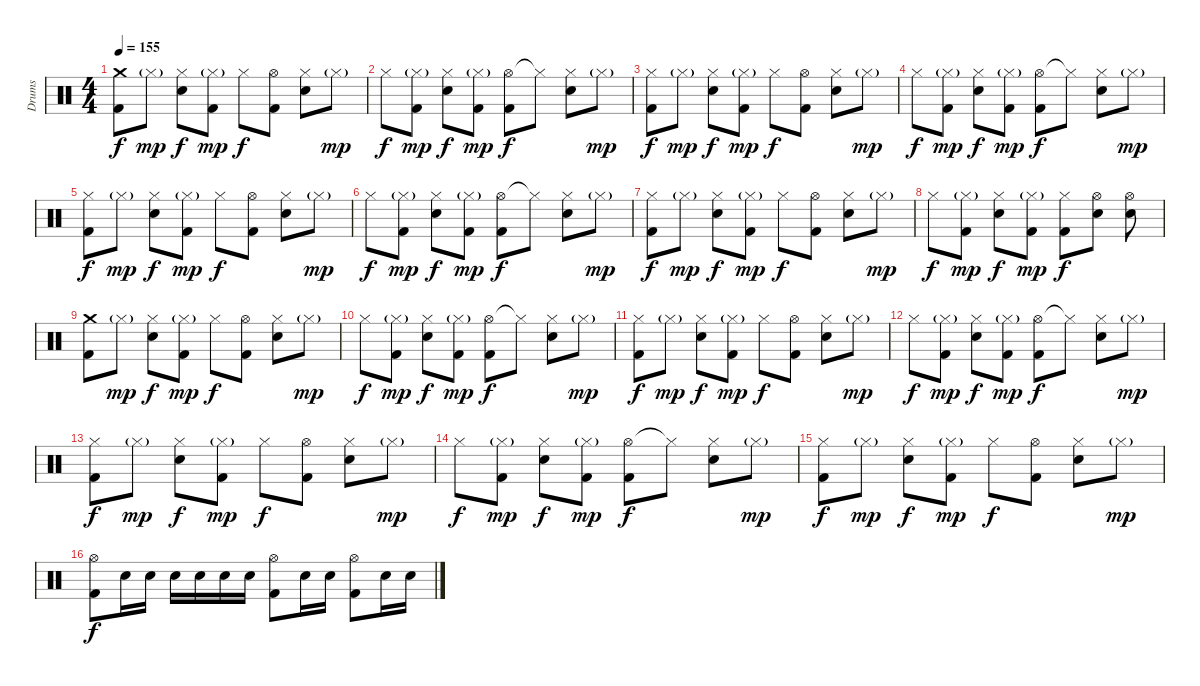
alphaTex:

\track ("Drums" "Drums") {instrument percussion}
\staff {score}
\articulation defaults
\ts (4 4)
\tempo 155
\clef neutral
\ks c
("Crash medium (hit)" "Kick (hit) 2").8{dy f} "Hi-Hat (closed)"{g}.8{dy mp} ("Hi-Hat (closed)" "Electric Snare (hit)").8{dy f} ("Hi-Hat (closed)"{g} "Kick (hit) 2").8{dy mp} "Hi-Hat (closed)".8{dy f} ("Hi-Hat (open)" "Kick (hit) 2").8 ("Hi-Hat (closed)" "Electric Snare (hit)").8 "Hi-Hat (closed)"{g}.8{dy mp} |
"Hi-Hat (closed)".8{dy f} ("Hi-Hat (closed)"{g} "Kick (hit) 2").8{dy mp} ("Hi-Hat (closed)" "Electric Snare (hit)").8{dy f} ("Hi-Hat (closed)"{g} "Kick (hit) 2").8{dy mp} ("Hi-Hat (open)" "Kick (hit) 2").8{dy f} "Hi-Hat (closed)"{t}.8 ("Hi-Hat (closed)" "Electric Snare (hit)").8 "Hi-Hat (closed)"{g}.8{dy mp} |
("Hi-Hat (closed)" "Kick (hit) 2").8{dy f} "Hi-Hat (closed)"{g}.8{dy mp} ("Hi-Hat (closed)" "Electric Snare (hit)").8{dy f} ("Hi-Hat (closed)"{g} "Kick (hit) 2").8{dy mp} "Hi-Hat (closed)".8{dy f} ("Hi-Hat (open)" "Kick (hit) 2").8 ("Hi-Hat (closed)" "Electric Snare (hit)").8 "Hi-Hat (closed)"{g}.8{dy mp} |
"Hi-Hat (closed)".8{dy f} ("Hi-Hat (closed)"{g} "Kick (hit) 2").8{dy mp} ("Hi-Hat (closed)" "Electric Snare (hit)").8{dy f} ("Hi-Hat (closed)"{g} "Kick (hit) 2").8{dy mp} ("Hi-Hat (open)" "Kick (hit) 2").8{dy f} "Hi-Hat (closed)"{t}.8 ("Hi-Hat (closed)" "Electric Snare (hit)").8 "Hi-Hat (closed)"{g}.8{dy mp} |
("Hi-Hat (closed)" "Kick (hit) 2").8{dy f} "Hi-Hat (closed)"{g}.8{dy mp} ("Hi-Hat (closed)" "Electric Snare (hit)").8{dy f} ("Hi-Hat (closed)"{g} "Kick (hit) 2").8{dy mp} "Hi-Hat (closed)".8{dy f} ("Hi-Hat (open)" "Kick (hit) 2").8 ("Hi-Hat (closed)" "Electric Snare (hit)").8 "Hi-Hat (closed)"{g}.8{dy mp} |
"Hi-Hat (closed)".8{dy f} ("Hi-Hat (closed)"{g} "Kick (hit) 2").8{dy mp} ("Hi-Hat (closed)" "Electric Snare (hit)").8{dy f} ("Hi-Hat (closed)"{g} "Kick (hit) 2").8{dy mp} ("Hi-Hat (open)" "Kick (hit) 2").8{dy f} "Hi-Hat (closed)"{t}.8 ("Hi-Hat (closed)" "Electric Snare (hit)").8 "Hi-Hat (closed)"{g}.8{dy mp} |
("Hi-Hat (closed)" "Kick (hit) 2").8{dy f} "Hi-Hat (closed)"{g}.8{dy mp} ("Hi-Hat (closed)" "Electric Snare (hit)").8{dy f} ("Hi-Hat (closed)"{g} "Kick (hit) 2").8{dy mp} "Hi-Hat (closed)".8{dy f} ("Hi-Hat (open)" "Kick (hit) 2").8 ("Hi-Hat (closed)" "Electric Snare (hit)").8 "Hi-Hat (closed)"{g}.8{dy mp} |
"Hi-Hat (closed)".8{dy f} ("Hi-Hat (closed)"{g} "Kick (hit) 2").8{dy mp} ("Hi-Hat (closed)" "Electric Snare (hit)").8{dy f} ("Hi-Hat (closed)"{g} "Kick (hit) 2").8{dy mp} ("Hi-Hat (closed)" "Kick (hit) 2").8{dy f} ("Hi-Hat (open)" "Electric Snare (hit)").8 ("Hi-Hat (open)" "Electric Snare (hit)").8 |
("Crash medium (hit)" "Kick (hit) 2").8 "Hi-Hat (closed)"{g}.8{dy mp} ("Hi-Hat (closed)" "Electric Snare (hit)").8{dy f} ("Hi-Hat (closed)"{g} "Kick (hit) 2").8{dy mp} "Hi-Hat (closed)".8{dy f} ("Hi-Hat (open)" "Kick (hit) 2").8 ("Hi-Hat (closed)" "Electric Snare (hit)").8 "Hi-Hat (closed)"{g}.8{dy mp} |
"Hi-Hat (closed)".8{dy f} ("Hi-Hat (closed)"{g} "Kick (hit) 2").8{dy mp} ("Hi-Hat (closed)" "Electric Snare (hit)").8{dy f} ("Hi-Hat (closed)"{g} "Kick (hit) 2").8{dy mp} ("Hi-Hat (open)" "Kick (hit) 2").8{dy f} "Hi-Hat (closed)"{t}.8 ("Hi-Hat (closed)" "Electric Snare (hit)").8 "Hi-Hat (closed)"{g}.8{dy mp} |
("Hi-Hat (closed)" "Kick (hit) 2").8{dy f} "Hi-Hat (closed)"{g}.8{dy mp} ("Hi-Hat (closed)" "Electric Snare (hit)").8{dy f} ("Hi-Hat (closed)"{g} "Kick (hit) 2").8{dy mp} "Hi-Hat (closed)".8{dy f} ("Hi-Hat (open)" "Kick (hit) 2").8 ("Hi-Hat (closed)" "Electric Snare (hit)").8 "Hi-Hat (closed)"{g}.8{dy mp} |
"Hi-Hat (closed)".8{dy f} ("Hi-Hat (closed)"{g} "Kick (hit) 2").8{dy mp} ("Hi-Hat (closed)" "Electric Snare (hit)").8{dy f} ("Hi-Hat (closed)"{g} "Kick (hit) 2").8{dy mp} ("Hi-Hat (open)" "Kick (hit) 2").8{dy f} "Hi-Hat (closed)"{t}.8 ("Hi-Hat (closed)" "Electric Snare (hit)").8 "Hi-Hat (closed)"{g}.8{dy mp} |
("Hi-Hat (closed)" "Kick (hit) 2").8{dy f} "Hi-Hat (closed)"{g}.8{dy mp} ("Hi-Hat (closed)" "Electric Snare (hit)").8{dy f} ("Hi-Hat (closed)"{g} "Kick (hit) 2").8{dy mp} "Hi-Hat (closed)".8{dy f} ("Hi-Hat (open)" "Kick (hit) 2").8 ("Hi-Hat (closed)" "Electric Snare (hit)").8 "Hi-Hat (closed)"{g}.8{dy mp} |
"Hi-Hat (closed)".8{dy f} ("Hi-Hat (closed)"{g} "Kick (hit) 2").8{dy mp} ("Hi-Hat (closed)" "Electric Snare (hit)").8{dy f} ("Hi-Hat (closed)"{g} "Kick (hit) 2").8{dy mp} ("Hi-Hat (open)" "Kick (hit) 2").8{dy f} "Hi-Hat (closed)"{t}.8 ("Hi-Hat (closed)" "Electric Snare (hit)").8 "Hi-Hat (closed)"{g}.8{dy mp} |
("Hi-Hat (closed)" "Kick (hit) 2").8{dy f} "Hi-Hat (closed)"{g}.8{dy mp} ("Hi-Hat (closed)" "Electric Snare (hit)").8{dy f} ("Hi-Hat (closed)"{g} "Kick (hit) 2").8{dy mp} "Hi-Hat (closed)".8{dy f} ("Hi-Hat (open)" "Kick (hit) 2").8 ("Hi-Hat (closed)" "Electric Snare (hit)").8 "Hi-Hat (closed)"{g}.8{dy mp} |
("Hi-Hat (open)" "Kick (hit) 2").8{dy f} "Electric Snare (hit)".16 "Electric Snare (hit)".16 "Electric Snare (hit)".16 "Electric Snare (hit)".16 "Electric Snare (hit)".16 "Electric Snare (hit)".16 ("Hi-Hat (open)" "Kick (hit) 2").8 "Electric Snare (hit)".16 "Electric Snare (hit)".16 ("Hi-Hat (open)" "Kick (hit) 2").8 "Electric Snare (hit)".16 "Electric Snare (hit)".16
